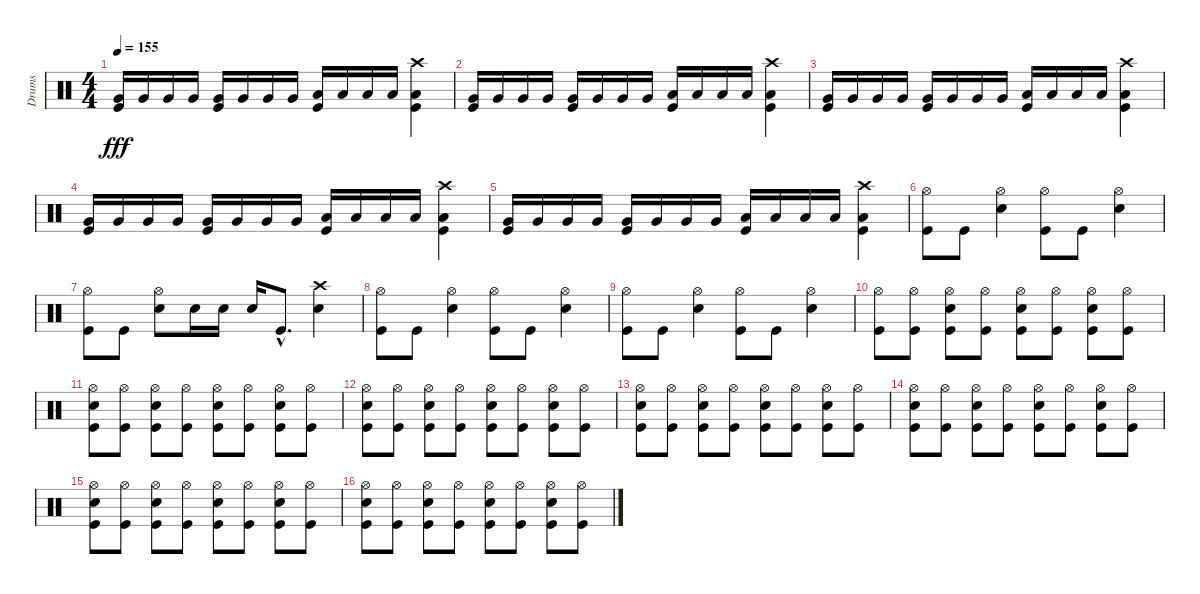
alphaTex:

\track ("Drums" "Drums") {instrument percussion}
\staff {score}
\articulation defaults
\ts (4 4)
\tempo 155
\clef neutral
\ks c
("Very Low Tom (hit)" "Kick (hit)").16{dy fff} "Very Low Tom (hit)".16 "Very Low Tom (hit)".16 "Very Low Tom (hit)".16 ("Very Low Tom (hit)" "Kick (hit)").16 "Very Low Tom (hit)".16 "Very Low Tom (hit)".16 "Very Low Tom (hit)".16 ("Low Floor Tom (hit)" "Kick (hit)").16 "Low Floor Tom (hit)".16 "Low Floor Tom (hit)".16 "Low Floor Tom (hit)".16 ("Crash high (hit)" "Low Floor Tom (hit)" "Kick (hit)").4 |
("Very Low Tom (hit)" "Kick (hit)").16 "Very Low Tom (hit)".16 "Very Low Tom (hit)".16 "Very Low Tom (hit)".16 ("Very Low Tom (hit)" "Kick (hit)").16 "Very Low Tom (hit)".16 "Very Low Tom (hit)".16 "Very Low Tom (hit)".16 ("Low Floor Tom (hit)" "Kick (hit)").16 "Low Floor Tom (hit)".16 "Low Floor Tom (hit)".16 "Low Floor Tom (hit)".16 ("Crash high (hit)" "Low Floor Tom (hit)" "Kick (hit)").4 |
("Very Low Tom (hit)" "Kick (hit)").16 "Very Low Tom (hit)".16 "Very Low Tom (hit)".16 "Very Low Tom (hit)".16 ("Very Low Tom (hit)" "Kick (hit)").16 "Very Low Tom (hit)".16 "Very Low Tom (hit)".16 "Very Low Tom (hit)".16 ("Low Floor Tom (hit)" "Kick (hit)").16 "Low Floor Tom (hit)".16 "Low Floor Tom (hit)".16 "Low Floor Tom (hit)".16 ("Crash high (hit)" "Low Floor Tom (hit)" "Kick (hit)").4 |
("Very Low Tom (hit)" "Kick (hit)").16 "Very Low Tom (hit)".16 "Very Low Tom (hit)".16 "Very Low Tom (hit)".16 ("Very Low Tom (hit)" "Kick (hit)").16 "Very Low Tom (hit)".16 "Very Low Tom (hit)".16 "Very Low Tom (hit)".16 ("Low Floor Tom (hit)" "Kick (hit)").16 "Low Floor Tom (hit)".16 "Low Floor Tom (hit)".16 "Low Floor Tom (hit)".16 ("Crash high (hit)" "Low Floor Tom (hit)" "Kick (hit)").4 |
("Very Low Tom (hit)" "Kick (hit)").16 "Very Low Tom (hit)".16 "Very Low Tom (hit)".16 "Very Low Tom (hit)".16 ("Very Low Tom (hit)" "Kick (hit)").16 "Very Low Tom (hit)".16 "Very Low Tom (hit)".16 "Very Low Tom (hit)".16 ("Low Floor Tom (hit)" "Kick (hit)").16 "Low Floor Tom (hit)".16 "Low Floor Tom (hit)".16 "Low Floor Tom (hit)".16 ("Crash high (hit)" "Low Floor Tom (hit)" "Kick (hit)").4 |
("Hi-Hat (open)" "Kick (hit)").8 "Kick (hit)".8 ("Hi-Hat (open)" "Snare (hit) 2").4 ("Hi-Hat (open)" "Kick (hit)").8 "Kick (hit)".8 ("Hi-Hat (open)" "Snare (hit) 2").4 |
("Hi-Hat (open)" "Kick (hit)").8 "Kick (hit)".8 ("Hi-Hat (open)" "Snare (hit) 2").8 "Snare (hit) 2".16 "Snare (hit) 2".16 "Snare (hit) 2".16 "Kick (hit)"{hac}.8{d} ("Crash high (hit)" "Snare (hit) 2").4 |
("Hi-Hat (open)" "Kick (hit)").8 "Kick (hit)".8 ("Hi-Hat (open)" "Snare (hit) 2").4 ("Hi-Hat (open)" "Kick (hit)").8 "Kick (hit)".8 ("Hi-Hat (open)" "Snare (hit) 2").4 |
("Hi-Hat (open)" "Kick (hit)").8 "Kick (hit)".8 ("Hi-Hat (open)" "Snare (hit) 2").4 ("Hi-Hat (open)" "Kick (hit)").8 "Kick (hit)".8 ("Hi-Hat (open)" "Snare (hit) 2").4 |
("Hi-Hat (open)" "Kick (hit)").8 ("Hi-Hat (open)" "Kick (hit)").8 ("Hi-Hat (open)" "Snare (hit) 2" "Kick (hit)").8 ("Hi-Hat (open)" "Kick (hit)").8 ("Hi-Hat (open)" "Snare (hit) 2" "Kick (hit)").8 ("Hi-Hat (open)" "Kick (hit)").8 ("Hi-Hat (open)" "Snare (hit) 2" "Kick (hit)").8 ("Hi-Hat (open)" "Kick (hit)").8 |
("Hi-Hat (open)" "Snare (hit) 2" "Kick (hit)").8 ("Hi-Hat (open)" "Kick (hit)").8 ("Hi-Hat (open)" "Snare (hit) 2" "Kick (hit)").8 ("Hi-Hat (open)" "Kick (hit)").8 ("Hi-Hat (open)" "Snare (hit) 2" "Kick (hit)").8 ("Hi-Hat (open)" "Kick (hit)").8 ("Hi-Hat (open)" "Snare (hit) 2" "Kick (hit)").8 ("Hi-Hat (open)" "Kick (hit)").8 |
("Hi-Hat (open)" "Snare (hit) 2" "Kick (hit)").8 ("Hi-Hat (open)" "Kick (hit)").8 ("Hi-Hat (open)" "Snare (hit) 2" "Kick (hit)").8 ("Hi-Hat (open)" "Kick (hit)").8 ("Hi-Hat (open)" "Snare (hit) 2" "Kick (hit)").8 ("Hi-Hat (open)" "Kick (hit)").8 ("Hi-Hat (open)" "Snare (hit) 2" "Kick (hit)").8 ("Hi-Hat (open)" "Kick (hit)").8 |
("Hi-Hat (open)" "Snare (hit) 2" "Kick (hit)").8 ("Hi-Hat (open)" "Kick (hit)").8 ("Hi-Hat (open)" "Snare (hit) 2" "Kick (hit)").8 ("Hi-Hat (open)" "Kick (hit)").8 ("Hi-Hat (open)" "Snare (hit) 2" "Kick (hit)").8 ("Hi-Hat (open)" "Kick (hit)").8 ("Hi-Hat (open)" "Snare (hit) 2" "Kick (hit)").8 ("Hi-Hat (open)" "Kick (hit)").8 |
("Hi-Hat (open)" "Snare (hit) 2" "Kick (hit)").8 ("Hi-Hat (open)" "Kick (hit)").8 ("Hi-Hat (open)" "Snare (hit) 2" "Kick (hit)").8 ("Hi-Hat (open)" "Kick (hit)").8 ("Hi-Hat (open)" "Snare (hit) 2" "Kick (hit)").8 ("Hi-Hat (open)" "Kick (hit)").8 ("Hi-Hat (open)" "Snare (hit) 2" "Kick (hit)").8 ("Hi-Hat (open)" "Kick (hit)").8 |
("Hi-Hat (open)" "Snare (hit) 2" "Kick (hit)").8 ("Hi-Hat (open)" "Kick (hit)").8 ("Hi-Hat (open)" "Snare (hit) 2" "Kick (hit)").8 ("Hi-Hat (open)" "Kick (hit)").8 ("Hi-Hat (open)" "Snare (hit) 2" "Kick (hit)").8 ("Hi-Hat (open)" "Kick (hit)").8 ("Hi-Hat (open)" "Snare (hit) 2" "Kick (hit)").8 ("Hi-Hat (open)" "Kick (hit)").8 |
("Hi-Hat (open)" "Snare (hit) 2" "Kick (hit)").8 ("Hi-Hat (open)" "Kick (hit)").8 ("Hi-Hat (open)" "Snare (hit) 2" "Kick (hit)").8 ("Hi-Hat (open)" "Kick (hit)").8 ("Hi-Hat (open)" "Snare (hit) 2" "Kick (hit)").8 ("Hi-Hat (open)" "Kick (hit)").8 ("Hi-Hat (open)" "Snare (hit) 2" "Kick (hit)").8 ("Hi-Hat (open)" "Kick (hit)").8
